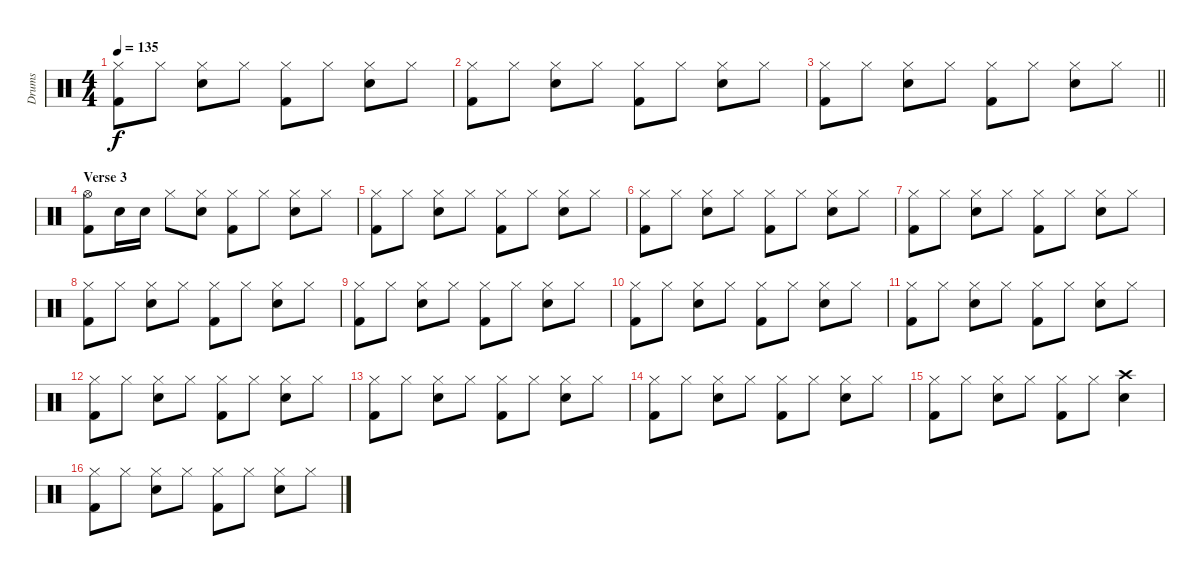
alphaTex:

\track ("Drums" "Drums") {instrument percussion}
\staff {score}
\articulation defaults
\ts (4 4)
\tempo 135
\clef neutral
\ks c
("Hi-Hat (closed)" "Kick (hit) 2").8{dy f} "Hi-Hat (closed)".8 ("Hi-Hat (closed)" "Snare (hit) 2").8 "Hi-Hat (closed)".8 ("Hi-Hat (closed)" "Kick (hit) 2").8 "Hi-Hat (closed)".8 ("Hi-Hat (closed)" "Snare (hit) 2").8 "Hi-Hat (closed)".8 |
("Hi-Hat (closed)" "Kick (hit) 2").8 "Hi-Hat (closed)".8 ("Hi-Hat (closed)" "Snare (hit) 2").8 "Hi-Hat (closed)".8 ("Hi-Hat (closed)" "Kick (hit) 2").8 "Hi-Hat (closed)".8 ("Hi-Hat (closed)" "Snare (hit) 2").8 "Hi-Hat (closed)".8 |
\barLineRight lightlight
("Hi-Hat (closed)" "Kick (hit) 2").8 "Hi-Hat (closed)".8 ("Hi-Hat (closed)" "Snare (hit) 2").8 "Hi-Hat (closed)".8 ("Hi-Hat (closed)" "Kick (hit) 2").8 "Hi-Hat (closed)".8 ("Hi-Hat (closed)" "Snare (hit) 2").8 "Hi-Hat (closed)".8 |
\section ("" "Verse 3")
("Hi-Hat (open)" "Kick (hit) 2").8 "Snare (hit) 2".16 "Snare (hit) 2".16 "Hi-Hat (closed)".8 ("Hi-Hat (closed)" "Snare (hit) 2").8 ("Hi-Hat (closed)" "Kick (hit) 2").8 "Hi-Hat (closed)".8 ("Hi-Hat (closed)" "Snare (hit) 2").8 "Hi-Hat (closed)".8 |
("Hi-Hat (closed)" "Kick (hit) 2").8 "Hi-Hat (closed)".8 ("Hi-Hat (closed)" "Snare (hit) 2").8 "Hi-Hat (closed)".8 ("Hi-Hat (closed)" "Kick (hit) 2").8 "Hi-Hat (closed)".8 ("Hi-Hat (closed)" "Snare (hit) 2").8 "Hi-Hat (closed)".8 |
("Hi-Hat (closed)" "Kick (hit) 2").8 "Hi-Hat (closed)".8 ("Hi-Hat (closed)" "Snare (hit) 2").8 "Hi-Hat (closed)".8 ("Hi-Hat (closed)" "Kick (hit) 2").8 "Hi-Hat (closed)".8 ("Hi-Hat (closed)" "Snare (hit) 2").8 "Hi-Hat (closed)".8 |
("Hi-Hat (closed)" "Kick (hit) 2").8 "Hi-Hat (closed)".8 ("Hi-Hat (closed)" "Snare (hit) 2").8 "Hi-Hat (closed)".8 ("Hi-Hat (closed)" "Kick (hit) 2").8 "Hi-Hat (closed)".8 ("Hi-Hat (closed)" "Snare (hit) 2").8 "Hi-Hat (closed)".8 |
("Hi-Hat (closed)" "Kick (hit) 2").8 "Hi-Hat (closed)".8 ("Hi-Hat (closed)" "Snare (hit) 2").8 "Hi-Hat (closed)".8 ("Hi-Hat (closed)" "Kick (hit) 2").8 "Hi-Hat (closed)".8 ("Hi-Hat (closed)" "Snare (hit) 2").8 "Hi-Hat (closed)".8 |
("Hi-Hat (closed)" "Kick (hit) 2").8 "Hi-Hat (closed)".8 ("Hi-Hat (closed)" "Snare (hit) 2").8 "Hi-Hat (closed)".8 ("Hi-Hat (closed)" "Kick (hit) 2").8 "Hi-Hat (closed)".8 ("Hi-Hat (closed)" "Snare (hit) 2").8 "Hi-Hat (closed)".8 |
("Hi-Hat (closed)" "Kick (hit) 2").8 "Hi-Hat (closed)".8 ("Hi-Hat (closed)" "Snare (hit) 2").8 "Hi-Hat (closed)".8 ("Hi-Hat (closed)" "Kick (hit) 2").8 "Hi-Hat (closed)".8 ("Hi-Hat (closed)" "Snare (hit) 2").8 "Hi-Hat (closed)".8 |
("Hi-Hat (closed)" "Kick (hit) 2").8 "Hi-Hat (closed)".8 ("Hi-Hat (closed)" "Snare (hit) 2").8 "Hi-Hat (closed)".8 ("Hi-Hat (closed)" "Kick (hit) 2").8 "Hi-Hat (closed)".8 ("Hi-Hat (closed)" "Snare (hit) 2").8 "Hi-Hat (closed)".8 |
("Hi-Hat (closed)" "Kick (hit) 2").8 "Hi-Hat (closed)".8 ("Hi-Hat (closed)" "Snare (hit) 2").8 "Hi-Hat (closed)".8 ("Hi-Hat (closed)" "Kick (hit) 2").8 "Hi-Hat (closed)".8 ("Hi-Hat (closed)" "Snare (hit) 2").8 "Hi-Hat (closed)".8 |
("Hi-Hat (closed)" "Kick (hit) 2").8 "Hi-Hat (closed)".8 ("Hi-Hat (closed)" "Snare (hit) 2").8 "Hi-Hat (closed)".8 ("Hi-Hat (closed)" "Kick (hit) 2").8 "Hi-Hat (closed)".8 ("Hi-Hat (closed)" "Snare (hit) 2").8 "Hi-Hat (closed)".8 |
("Hi-Hat (closed)" "Kick (hit) 2").8 "Hi-Hat (closed)".8 ("Hi-Hat (closed)" "Snare (hit) 2").8 "Hi-Hat (closed)".8 ("Hi-Hat (closed)" "Kick (hit) 2").8 "Hi-Hat (closed)".8 ("Hi-Hat (closed)" "Snare (hit) 2").8 "Hi-Hat (closed)".8 |
("Hi-Hat (closed)" "Kick (hit) 2").8 "Hi-Hat (closed)".8 ("Hi-Hat (closed)" "Snare (hit) 2").8 "Hi-Hat (closed)".8 ("Hi-Hat (closed)" "Kick (hit) 2").8 "Hi-Hat (closed)".8 ("Crash high (hit)" "Snare (hit) 2").4 |
("Hi-Hat (closed)" "Kick (hit) 2").8 "Hi-Hat (closed)".8 ("Hi-Hat (closed)" "Snare (hit) 2").8 "Hi-Hat (closed)".8 ("Hi-Hat (closed)" "Kick (hit) 2").8 "Hi-Hat (closed)".8 ("Hi-Hat (closed)" "Snare (hit) 2").8 "Hi-Hat (closed)".8
